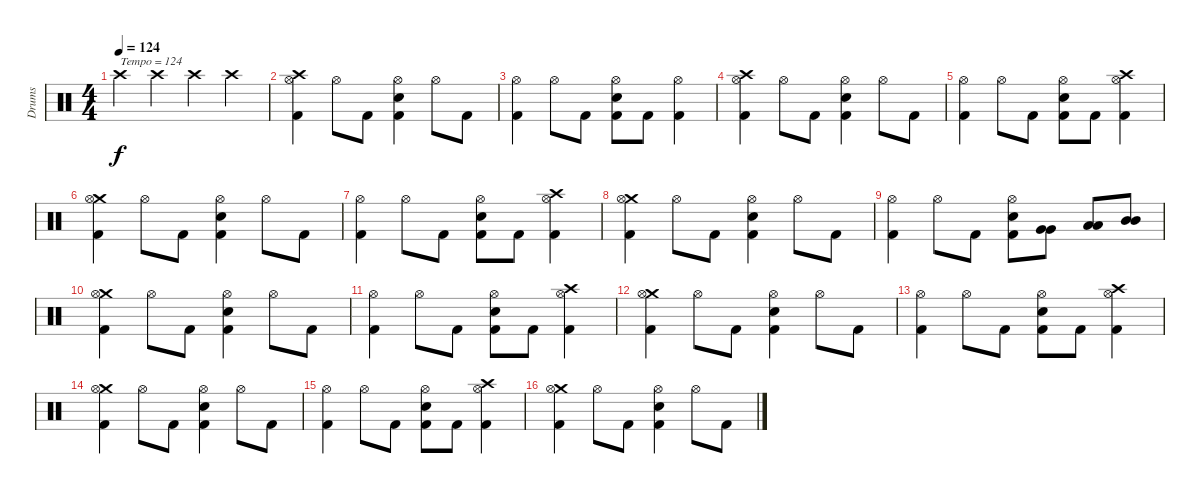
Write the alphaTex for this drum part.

\track ("Drums" "Drums") {instrument percussion}
\staff {score}
\articulation defaults
\ts (4 4)
\tempo 124
\clef neutral
\ks c "Crash high (hit)".4{txt "Tempo = 124" dy f} "Crash high (hit)".4 "Crash high (hit)".4 "Crash high (hit)".4
|
("Crash high (hit)" "Hi-Hat (open)" "Kick (hit) 2").4 "Hi-Hat (open)".8 "Kick (hit) 2".8 ("Hi-Hat (open)" "Electric Snare (hit)" "Kick (hit) 2").4 "Hi-Hat (open)".8 "Kick (hit) 2".8 |
("Hi-Hat (open)" "Kick (hit) 2").4 "Hi-Hat (open)".8 "Kick (hit) 2".8 ("Hi-Hat (open)" "Electric Snare (hit)" "Kick (hit) 2").8 "Kick (hit) 2".8 ("Hi-Hat (open)" "Kick (hit) 2").4 |
("Crash high (hit)" "Hi-Hat (open)" "Kick (hit) 2").4 "Hi-Hat (open)".8 "Kick (hit) 2".8 ("Hi-Hat (open)" "Electric Snare (hit)" "Kick (hit) 2").4 "Hi-Hat (open)".8 "Kick (hit) 2".8 |
("Hi-Hat (open)" "Kick (hit) 2").4 "Hi-Hat (open)".8 "Kick (hit) 2".8 ("Hi-Hat (open)" "Electric Snare (hit)" "Kick (hit) 2").8 "Kick (hit) 2".8 ("Crash high (hit)" "Hi-Hat (open)" "Kick (hit) 2").4 |
("Crash medium (hit)" "Hi-Hat (open)" "Kick (hit) 2").4 "Hi-Hat (open)".8 "Kick (hit) 2".8 ("Hi-Hat (open)" "Electric Snare (hit)" "Kick (hit) 2").4 "Hi-Hat (open)".8 "Kick (hit) 2".8 |
("Hi-Hat (open)" "Kick (hit) 2").4 "Hi-Hat (open)".8 "Kick (hit) 2".8 ("Hi-Hat (open)" "Electric Snare (hit)" "Kick (hit) 2").8 "Kick (hit) 2".8 ("Crash high (hit)" "Hi-Hat (open)" "Kick (hit) 2").4 |
("Crash medium (hit)" "Hi-Hat (open)" "Kick (hit) 2").4 "Hi-Hat (open)".8 "Kick (hit) 2".8 ("Hi-Hat (open)" "Electric Snare (hit)" "Kick (hit) 2").4 "Hi-Hat (open)".8 "Kick (hit) 2".8 |
("Hi-Hat (open)" "Kick (hit) 2").4 "Hi-Hat (open)".8 "Kick (hit) 2".8 ("Hi-Hat (open)" "Electric Snare (hit)" "Kick (hit) 2").8 ("Very Low Tom (hit)" "Very Low Tom (hit)").8 ("Low Tom (hit)" "Low Tom (hit)").8 ("Mid Tom (hit)" "Mid Tom (hit)").8 |
("Crash medium (hit)" "Hi-Hat (open)" "Kick (hit) 2").4 "Hi-Hat (open)".8 "Kick (hit) 2".8 ("Hi-Hat (open)" "Electric Snare (hit)" "Kick (hit) 2").4 "Hi-Hat (open)".8 "Kick (hit) 2".8 |
("Hi-Hat (open)" "Kick (hit) 2").4 "Hi-Hat (open)".8 "Kick (hit) 2".8 ("Hi-Hat (open)" "Electric Snare (hit)" "Kick (hit) 2").8 "Kick (hit) 2".8 ("Crash high (hit)" "Hi-Hat (open)" "Kick (hit) 2").4 |
("Crash medium (hit)" "Hi-Hat (open)" "Kick (hit) 2").4 "Hi-Hat (open)".8 "Kick (hit) 2".8 ("Hi-Hat (open)" "Electric Snare (hit)" "Kick (hit) 2").4 "Hi-Hat (open)".8 "Kick (hit) 2".8 |
("Hi-Hat (open)" "Kick (hit) 2").4 "Hi-Hat (open)".8 "Kick (hit) 2".8 ("Hi-Hat (open)" "Electric Snare (hit)" "Kick (hit) 2").8 "Kick (hit) 2".8 ("Crash high (hit)" "Hi-Hat (open)" "Kick (hit) 2").4 |
("Crash medium (hit)" "Hi-Hat (open)" "Kick (hit) 2").4 "Hi-Hat (open)".8 "Kick (hit) 2".8 ("Hi-Hat (open)" "Electric Snare (hit)" "Kick (hit) 2").4 "Hi-Hat (open)".8 "Kick (hit) 2".8 |
("Hi-Hat (open)" "Kick (hit) 2").4 "Hi-Hat (open)".8 "Kick (hit) 2".8 ("Hi-Hat (open)" "Electric Snare (hit)" "Kick (hit) 2").8 "Kick (hit) 2".8 ("Crash high (hit)" "Hi-Hat (open)" "Kick (hit) 2").4 |
("Crash medium (hit)" "Hi-Hat (open)" "Kick (hit) 2").4 "Hi-Hat (open)".8 "Kick (hit) 2".8 ("Hi-Hat (open)" "Electric Snare (hit)" "Kick (hit) 2").4 "Hi-Hat (open)".8 "Kick (hit) 2".8
